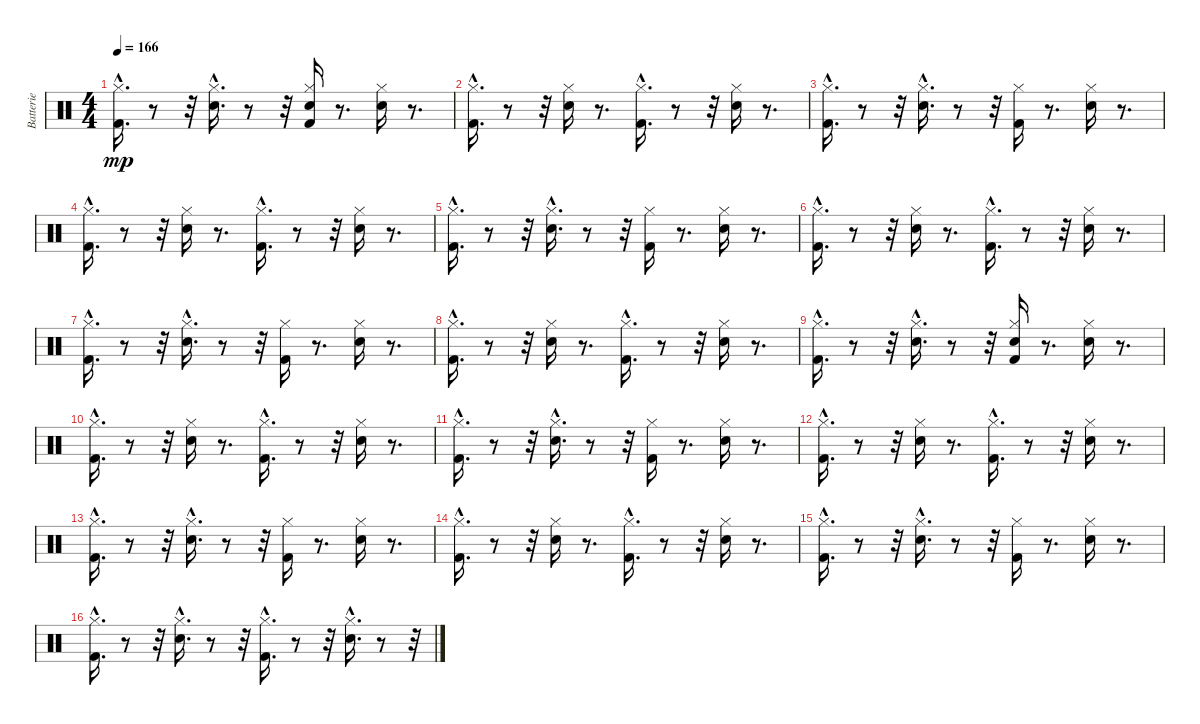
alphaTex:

\track ("Batterie" "Batterie") {instrument percussion}
\staff {score}
\articulation defaults
\ts (4 4)
\tempo 166
\clef neutral
\ks c
("Kick (hit) 2"{hac} "Hi-Hat (closed)").16{d dy mp} r.8 r.32 ("Electric Snare (hit)" "Hi-Hat (closed)"{hac}).16{d} r.8 r.32 ("Kick (hit) 2" "Electric Snare (hit)" "Hi-Hat (closed)").16 r.8{d} ("Electric Snare (hit)" "Hi-Hat (closed)").16 r.8{d} |
("Kick (hit) 2"{hac} "Hi-Hat (closed)"{hac}).16{d} r.8 r.32 ("Electric Snare (hit)" "Hi-Hat (closed)").16 r.8{d} ("Kick (hit) 2"{hac} "Hi-Hat (closed)").16{d} r.8 r.32 ("Electric Snare (hit)" "Hi-Hat (closed)").16 r.8{d} |
("Kick (hit) 2"{hac} "Hi-Hat (closed)").16{d} r.8 r.32 ("Electric Snare (hit)" "Hi-Hat (closed)"{hac}).16{d} r.8 r.32 ("Kick (hit) 2" "Hi-Hat (closed)").16 r.8{d} ("Electric Snare (hit)" "Hi-Hat (closed)").16 r.8{d} |
("Kick (hit) 2"{hac} "Hi-Hat (closed)"{hac}).16{d} r.8 r.32 ("Electric Snare (hit)" "Hi-Hat (closed)").16 r.8{d} ("Kick (hit) 2"{hac} "Hi-Hat (closed)").16{d} r.8 r.32 ("Electric Snare (hit)" "Hi-Hat (closed)").16 r.8{d} |
("Kick (hit) 2"{hac} "Hi-Hat (closed)").16{d} r.8 r.32 ("Electric Snare (hit)" "Hi-Hat (closed)"{hac}).16{d} r.8 r.32 ("Kick (hit) 2" "Hi-Hat (closed)").16 r.8{d} ("Electric Snare (hit)" "Hi-Hat (closed)").16 r.8{d} |
("Kick (hit) 2"{hac} "Hi-Hat (closed)"{hac}).16{d} r.8 r.32 ("Electric Snare (hit)" "Hi-Hat (closed)").16 r.8{d} ("Kick (hit) 2"{hac} "Hi-Hat (closed)").16{d} r.8 r.32 ("Electric Snare (hit)" "Hi-Hat (closed)").16 r.8{d} |
("Kick (hit) 2"{hac} "Hi-Hat (closed)").16{d} r.8 r.32 ("Electric Snare (hit)" "Hi-Hat (closed)"{hac}).16{d} r.8 r.32 ("Kick (hit) 2" "Hi-Hat (closed)").16 r.8{d} ("Electric Snare (hit)" "Hi-Hat (closed)").16 r.8{d} |
("Kick (hit) 2"{hac} "Hi-Hat (closed)"{hac}).16{d} r.8 r.32 ("Electric Snare (hit)" "Hi-Hat (closed)").16 r.8{d} ("Kick (hit) 2"{hac} "Hi-Hat (closed)").16{d} r.8 r.32 ("Electric Snare (hit)" "Hi-Hat (closed)").16 r.8{d} |
("Kick (hit) 2"{hac} "Hi-Hat (closed)").16{d} r.8 r.32 ("Electric Snare (hit)" "Hi-Hat (closed)"{hac}).16{d} r.8 r.32 ("Kick (hit) 2" "Electric Snare (hit)" "Hi-Hat (closed)").16 r.8{d} ("Electric Snare (hit)" "Hi-Hat (closed)").16 r.8{d} |
("Kick (hit) 2"{hac} "Hi-Hat (closed)"{hac}).16{d} r.8 r.32 ("Electric Snare (hit)" "Hi-Hat (closed)").16 r.8{d} ("Kick (hit) 2"{hac} "Hi-Hat (closed)").16{d} r.8 r.32 ("Electric Snare (hit)" "Hi-Hat (closed)").16 r.8{d} |
("Kick (hit) 2"{hac} "Hi-Hat (closed)").16{d} r.8 r.32 ("Electric Snare (hit)" "Hi-Hat (closed)"{hac}).16{d} r.8 r.32 ("Kick (hit) 2" "Hi-Hat (closed)").16 r.8{d} ("Electric Snare (hit)" "Hi-Hat (closed)").16 r.8{d} |
("Kick (hit) 2"{hac} "Hi-Hat (closed)"{hac}).16{d} r.8 r.32 ("Electric Snare (hit)" "Hi-Hat (closed)").16 r.8{d} ("Kick (hit) 2"{hac} "Hi-Hat (closed)").16{d} r.8 r.32 ("Electric Snare (hit)" "Hi-Hat (closed)").16 r.8{d} |
("Kick (hit) 2"{hac} "Hi-Hat (closed)").16{d} r.8 r.32 ("Electric Snare (hit)" "Hi-Hat (closed)"{hac}).16{d} r.8 r.32 ("Kick (hit) 2" "Hi-Hat (closed)").16 r.8{d} ("Electric Snare (hit)" "Hi-Hat (closed)").16 r.8{d} |
("Kick (hit) 2"{hac} "Hi-Hat (closed)"{hac}).16{d} r.8 r.32 ("Electric Snare (hit)" "Hi-Hat (closed)").16 r.8{d} ("Kick (hit) 2"{hac} "Hi-Hat (closed)").16{d} r.8 r.32 ("Electric Snare (hit)" "Hi-Hat (closed)").16 r.8{d} |
("Kick (hit) 2"{hac} "Hi-Hat (closed)").16{d} r.8 r.32 ("Electric Snare (hit)" "Hi-Hat (closed)"{hac}).16{d} r.8 r.32 ("Kick (hit) 2" "Hi-Hat (closed)").16 r.8{d} ("Electric Snare (hit)" "Hi-Hat (closed)").16 r.8{d} |
("Kick (hit) 2"{hac} "Hi-Hat (closed)"{hac}).16{d} r.8 r.32 ("Electric Snare (hit)"{hac} "Hi-Hat (closed)").16{d} r.8 r.32 ("Kick (hit) 2"{hac} "Hi-Hat (closed)").16{d} r.8 r.32 ("Electric Snare (hit)"{hac} "Hi-Hat (closed)").16{d} r.8 r.32
